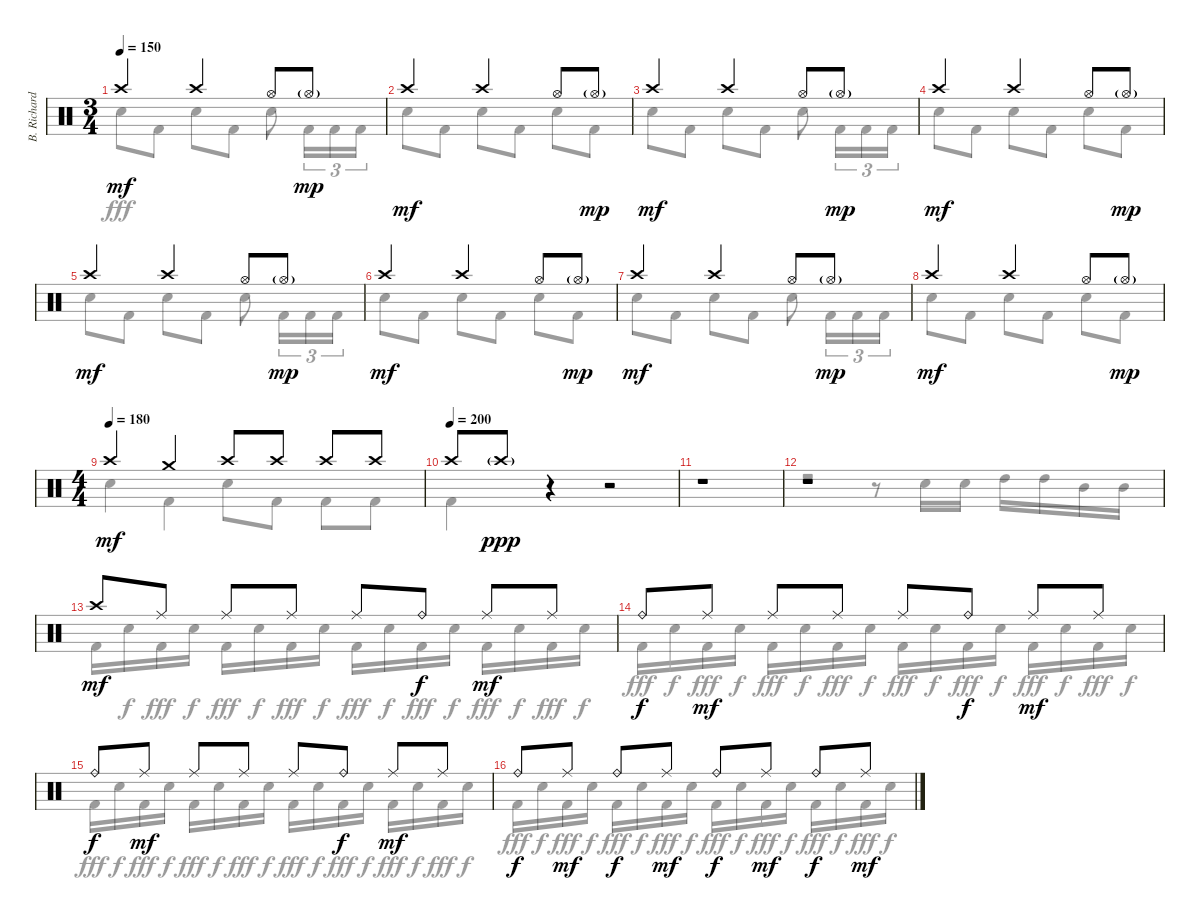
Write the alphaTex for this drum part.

\track ("B. Richardson Drums" "B. Richard") {instrument percussion}
\staff {score}
\articulation defaults
\voice
\ts (3 4)
\tempo 150
\clef neutral
\ks c "Crash high (hit)".4{dy mf} "Crash high (hit)".4 "Hi-Hat (open)".8 "Hi-Hat (open)"{g}.8{dy mp}
|
"Crash high (hit)".4{dy mf} "Crash high (hit)".4 "Hi-Hat (open)".8 "Hi-Hat (open)"{g}.8{dy mp} |
"Crash high (hit)".4{dy mf} "Crash high (hit)".4 "Hi-Hat (open)".8 "Hi-Hat (open)"{g}.8{dy mp} |
"Crash high (hit)".4{dy mf} "Crash high (hit)".4 "Hi-Hat (open)".8 "Hi-Hat (open)"{g}.8{dy mp} |
"Crash high (hit)".4{dy mf} "Crash high (hit)".4 "Hi-Hat (open)".8 "Hi-Hat (open)"{g}.8{dy mp} |
"Crash high (hit)".4{dy mf} "Crash high (hit)".4 "Hi-Hat (open)".8 "Hi-Hat (open)"{g}.8{dy mp} |
"Crash high (hit)".4{dy mf} "Crash high (hit)".4 "Hi-Hat (open)".8 "Hi-Hat (open)"{g}.8{dy mp} |
"Crash high (hit)".4{dy mf} "Crash high (hit)".4 "Hi-Hat (open)".8 "Hi-Hat (open)"{g}.8{dy mp} |
\ts (4 4)
\tempo (180)
"Crash high (hit)".4{dy mf} "Crash medium (hit)".4 "Crash high (hit)".8 "Crash high (hit)".8 "Crash high (hit)".8 "Crash high (hit)".8 |
\tempo (200)
"Crash high (hit)".8 "Crash high (hit)"{g}.8{dy ppp} r.4 r.2 |
r.1 |
r.1 |
"Crash high (hit)".8{dy mf} "Ride (middle)".8 "Ride (middle)".8 "Ride (middle)".8 "Ride (middle)".8 "Ride (bell)".8{dy f} "Ride (middle)".8{dy mf} "Ride (middle)".8 |
"Ride (bell)".8{dy f} "Ride (middle)".8{dy mf} "Ride (middle)".8 "Ride (middle)".8 "Ride (middle)".8 "Ride (bell)".8{dy f} "Ride (middle)".8{dy mf} "Ride (middle)".8 |
"Ride (bell)".8{dy f} "Ride (middle)".8{dy mf} "Ride (middle)".8 "Ride (middle)".8 "Ride (middle)".8 "Ride (bell)".8{dy f} "Ride (middle)".8{dy mf} "Ride (middle)".8 |
"Ride (bell)".8{dy f} "Ride (middle)".8{dy mf} "Ride (bell)".8{dy f} "Ride (middle)".8{dy mf} "Ride (bell)".8{dy f} "Ride (middle)".8{dy mf} "Ride (bell)".8{dy f} "Ride (middle)".8{dy mf}
\voice
\clef neutral
\ottava regular
\simile none
\ks c "Electric Snare (hit)".8{dy fff} "Kick (hit) 2".8 "Electric Snare (hit)".8 "Kick (hit) 2".8 "Electric Snare (hit)".8 "Kick (hit) 2".16{tu (3 2)} "Kick (hit) 2".16{tu (3 2)} "Kick (hit) 2".16{tu (3 2)}
|
"Electric Snare (hit)".8 "Kick (hit) 2".8 "Electric Snare (hit)".8 "Kick (hit) 2".8 "Electric Snare (hit)".8 "Kick (hit) 2".8 |
"Electric Snare (hit)".8 "Kick (hit) 2".8 "Electric Snare (hit)".8 "Kick (hit) 2".8 "Electric Snare (hit)".8 "Kick (hit) 2".16{tu (3 2)} "Kick (hit) 2".16{tu (3 2)} "Kick (hit) 2".16{tu (3 2)} |
"Electric Snare (hit)".8 "Kick (hit) 2".8 "Electric Snare (hit)".8 "Kick (hit) 2".8 "Electric Snare (hit)".8 "Kick (hit) 2".8 |
"Electric Snare (hit)".8 "Kick (hit) 2".8 "Electric Snare (hit)".8 "Kick (hit) 2".8 "Electric Snare (hit)".8 "Kick (hit) 2".16{tu (3 2)} "Kick (hit) 2".16{tu (3 2)} "Kick (hit) 2".16{tu (3 2)} |
"Electric Snare (hit)".8 "Kick (hit) 2".8 "Electric Snare (hit)".8 "Kick (hit) 2".8 "Electric Snare (hit)".8 "Kick (hit) 2".8 |
"Electric Snare (hit)".8 "Kick (hit) 2".8 "Electric Snare (hit)".8 "Kick (hit) 2".8 "Electric Snare (hit)".8 "Kick (hit) 2".16{tu (3 2)} "Kick (hit) 2".16{tu (3 2)} "Kick (hit) 2".16{tu (3 2)} |
"Electric Snare (hit)".8 "Kick (hit) 2".8 "Electric Snare (hit)".8 "Kick (hit) 2".8 "Electric Snare (hit)".8 "Kick (hit) 2".8 |
"Electric Snare (hit)".4 "Kick (hit) 2".4 "Electric Snare (hit)".8 "Kick (hit) 2".8 "Kick (hit) 2".8 "Kick (hit) 2".8 |
"Kick (hit) 2".4 r.4 r.2 |
r.1 |
r.2 r.8 "Electric Snare (hit)".16 "Electric Snare (hit)".16 "High Tom (hit)".16 "High Tom (hit)".16 "Mid Tom (hit)".16 "Mid Tom (hit)".16 |
"Kick (hit) 2".16 "Electric Snare (hit)".16{dy f} "Kick (hit) 2".16{dy fff} "Electric Snare (hit)".16{dy f} "Kick (hit) 2".16{dy fff} "Electric Snare (hit)".16{dy f} "Kick (hit) 2".16{dy fff} "Electric Snare (hit)".16{dy f} "Kick (hit) 2".16{dy fff} "Electric Snare (hit)".16{dy f} "Kick (hit) 2".16{dy fff} "Electric Snare (hit)".16{dy f} "Kick (hit) 2".16{dy fff} "Electric Snare (hit)".16{dy f} "Kick (hit) 2".16{dy fff} "Electric Snare (hit)".16{dy f} |
"Kick (hit) 2".16{dy fff} "Electric Snare (hit)".16{dy f} "Kick (hit) 2".16{dy fff} "Electric Snare (hit)".16{dy f} "Kick (hit) 2".16{dy fff} "Electric Snare (hit)".16{dy f} "Kick (hit) 2".16{dy fff} "Electric Snare (hit)".16{dy f} "Kick (hit) 2".16{dy fff} "Electric Snare (hit)".16{dy f} "Kick (hit) 2".16{dy fff} "Electric Snare (hit)".16{dy f} "Kick (hit) 2".16{dy fff} "Electric Snare (hit)".16{dy f} "Kick (hit) 2".16{dy fff} "Electric Snare (hit)".16{dy f} |
"Kick (hit) 2".16{dy fff} "Electric Snare (hit)".16{dy f} "Kick (hit) 2".16{dy fff} "Electric Snare (hit)".16{dy f} "Kick (hit) 2".16{dy fff} "Electric Snare (hit)".16{dy f} "Kick (hit) 2".16{dy fff} "Electric Snare (hit)".16{dy f} "Kick (hit) 2".16{dy fff} "Electric Snare (hit)".16{dy f} "Kick (hit) 2".16{dy fff} "Electric Snare (hit)".16{dy f} "Kick (hit) 2".16{dy fff} "Electric Snare (hit)".16{dy f} "Kick (hit) 2".16{dy fff} "Electric Snare (hit)".16{dy f} |
"Kick (hit) 2".16{dy fff} "Electric Snare (hit)".16{dy f} "Kick (hit) 2".16{dy fff} "Electric Snare (hit)".16{dy f} "Kick (hit) 2".16{dy fff} "Electric Snare (hit)".16{dy f} "Kick (hit) 2".16{dy fff} "Electric Snare (hit)".16{dy f} "Kick (hit) 2".16{dy fff} "Electric Snare (hit)".16{dy f} "Kick (hit) 2".16{dy fff} "Electric Snare (hit)".16{dy f} "Kick (hit) 2".16{dy fff} "Electric Snare (hit)".16{dy f} "Kick (hit) 2".16{dy fff} "Electric Snare (hit)".16{dy f}
